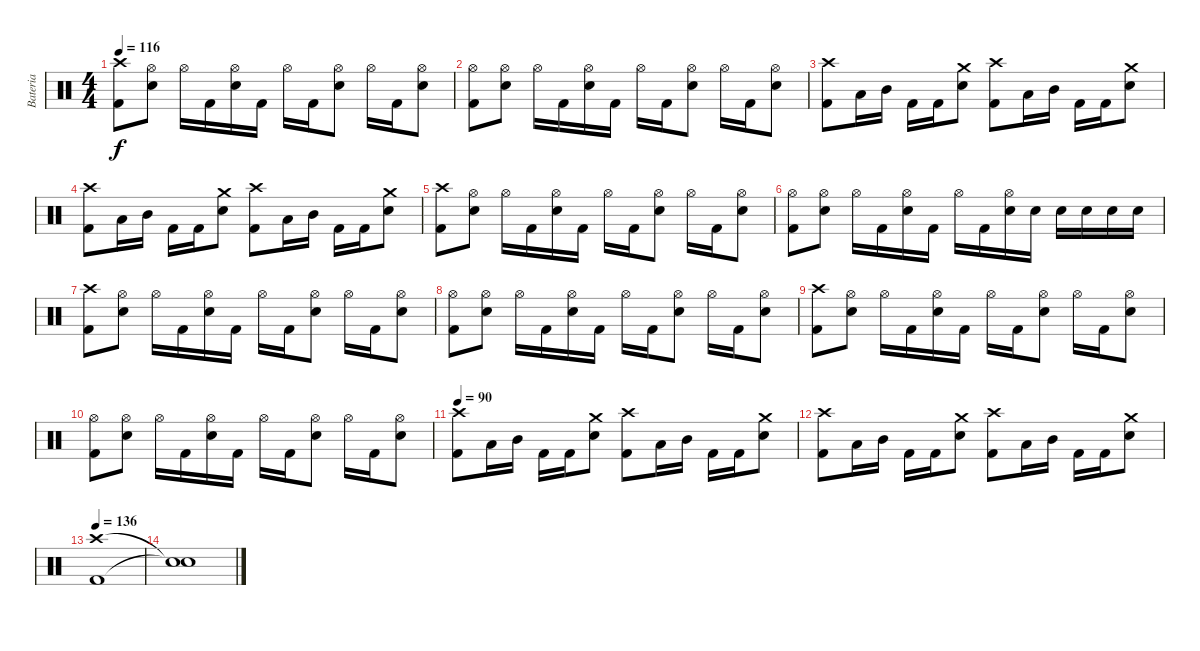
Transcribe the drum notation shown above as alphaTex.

\track ("Bateria" "Bateria") {instrument percussion}
\staff {score}
\articulation defaults
\ts (4 4)
\tempo 116
\clef neutral
\ks c
("Kick (hit) 2" "Crash high (hit)").8{dy f} ("Snare (hit) 2" "Hi-Hat (open)").8 "Hi-Hat (open)".16 "Kick (hit) 2".16 ("Snare (hit) 2" "Hi-Hat (open)").16 "Kick (hit) 2".16 "Hi-Hat (open)".16 "Kick (hit) 2".16 ("Snare (hit) 2" "Hi-Hat (open)").8 "Hi-Hat (open)".16 "Kick (hit) 2".16 ("Snare (hit) 2" "Hi-Hat (open)").8 |
("Kick (hit) 2" "Hi-Hat (open)").8 ("Snare (hit) 2" "Hi-Hat (open)").8 "Hi-Hat (open)".16 "Kick (hit) 2".16 ("Snare (hit) 2" "Hi-Hat (open)").16 "Kick (hit) 2".16 "Hi-Hat (open)".16 "Kick (hit) 2".16 ("Snare (hit) 2" "Hi-Hat (open)").8 "Hi-Hat (open)".16 "Kick (hit) 2".16 ("Snare (hit) 2" "Hi-Hat (open)").8 |
("Kick (hit) 2" "Crash high (hit)").8 "Low Floor Tom (hit)".16 "Mid Tom (hit)".16 "Kick (hit) 2".16 "Kick (hit) 2".16 ("Snare (hit) 2" "Crash medium (hit)").8 ("Kick (hit) 2" "Crash high (hit)").8 "Low Floor Tom (hit)".16 "Mid Tom (hit)".16 "Kick (hit) 2".16 "Kick (hit) 2".16 ("Snare (hit) 2" "Crash medium (hit)").8 |
("Kick (hit) 2" "Crash high (hit)").8 "Low Floor Tom (hit)".16 "Mid Tom (hit)".16 "Kick (hit) 2".16 "Kick (hit) 2".16 ("Snare (hit) 2" "Crash medium (hit)").8 ("Kick (hit) 2" "Crash high (hit)").8 "Low Floor Tom (hit)".16 "Mid Tom (hit)".16 "Kick (hit) 2".16 "Kick (hit) 2".16 ("Snare (hit) 2" "Crash medium (hit)").8 |
("Kick (hit) 2" "Crash high (hit)").8 ("Snare (hit) 2" "Hi-Hat (open)").8 "Hi-Hat (open)".16 "Kick (hit) 2".16 ("Snare (hit) 2" "Hi-Hat (open)").16 "Kick (hit) 2".16 "Hi-Hat (open)".16 "Kick (hit) 2".16 ("Snare (hit) 2" "Hi-Hat (open)").8 "Hi-Hat (open)".16 "Kick (hit) 2".16 ("Snare (hit) 2" "Hi-Hat (open)").8 |
("Kick (hit) 2" "Hi-Hat (open)").8 ("Snare (hit) 2" "Hi-Hat (open)").8 "Hi-Hat (open)".16 "Kick (hit) 2".16 ("Snare (hit) 2" "Hi-Hat (open)").16 "Kick (hit) 2".16 "Hi-Hat (open)".16 "Kick (hit) 2".16 ("Snare (hit) 2" "Hi-Hat (open)").16 "Snare (hit) 2".16 "Snare (hit) 2".16 "Snare (hit) 2".16 "Snare (hit) 2".16 "Snare (hit) 2".16 |
("Kick (hit) 2" "Crash high (hit)").8 ("Snare (hit) 2" "Hi-Hat (open)").8 "Hi-Hat (open)".16 "Kick (hit) 2".16 ("Snare (hit) 2" "Hi-Hat (open)").16 "Kick (hit) 2".16 "Hi-Hat (open)".16 "Kick (hit) 2".16 ("Snare (hit) 2" "Hi-Hat (open)").8 "Hi-Hat (open)".16 "Kick (hit) 2".16 ("Snare (hit) 2" "Hi-Hat (open)").8 |
("Kick (hit) 2" "Hi-Hat (open)").8 ("Snare (hit) 2" "Hi-Hat (open)").8 "Hi-Hat (open)".16 "Kick (hit) 2".16 ("Snare (hit) 2" "Hi-Hat (open)").16 "Kick (hit) 2".16 "Hi-Hat (open)".16 "Kick (hit) 2".16 ("Snare (hit) 2" "Hi-Hat (open)").8 "Hi-Hat (open)".16 "Kick (hit) 2".16 ("Snare (hit) 2" "Hi-Hat (open)").8 |
("Kick (hit) 2" "Crash high (hit)").8 ("Snare (hit) 2" "Hi-Hat (open)").8 "Hi-Hat (open)".16 "Kick (hit) 2".16 ("Snare (hit) 2" "Hi-Hat (open)").16 "Kick (hit) 2".16 "Hi-Hat (open)".16 "Kick (hit) 2".16 ("Snare (hit) 2" "Hi-Hat (open)").8 "Hi-Hat (open)".16 "Kick (hit) 2".16 ("Snare (hit) 2" "Hi-Hat (open)").8 |
("Kick (hit) 2" "Hi-Hat (open)").8 ("Snare (hit) 2" "Hi-Hat (open)").8 "Hi-Hat (open)".16 "Kick (hit) 2".16 ("Snare (hit) 2" "Hi-Hat (open)").16 "Kick (hit) 2".16 "Hi-Hat (open)".16 "Kick (hit) 2".16 ("Snare (hit) 2" "Hi-Hat (open)").8 "Hi-Hat (open)".16 "Kick (hit) 2".16 ("Snare (hit) 2" "Hi-Hat (open)").8 |
\tempo 90
("Kick (hit) 2" "Crash high (hit)").8 "Low Floor Tom (hit)".16 "Mid Tom (hit)".16 "Kick (hit) 2".16 "Kick (hit) 2".16 ("Snare (hit) 2" "Crash medium (hit)").8 ("Kick (hit) 2" "Crash high (hit)").8 "Low Floor Tom (hit)".16 "Mid Tom (hit)".16 "Kick (hit) 2".16 "Kick (hit) 2".16 ("Snare (hit) 2" "Crash medium (hit)").8 |
("Kick (hit) 2" "Crash high (hit)").8 "Low Floor Tom (hit)".16 "Mid Tom (hit)".16 "Kick (hit) 2".16 "Kick (hit) 2".16 ("Snare (hit) 2" "Crash medium (hit)").8 ("Kick (hit) 2" "Crash high (hit)").8 "Low Floor Tom (hit)".16 "Mid Tom (hit)".16 "Kick (hit) 2".16 "Kick (hit) 2".16 ("Snare (hit) 2" "Crash medium (hit)").8 |
\tempo 136
("Kick (hit) 2" "Crash high (hit)").1 |
("Snare (hit)"{t} "Snare (hit)"{t}).1
